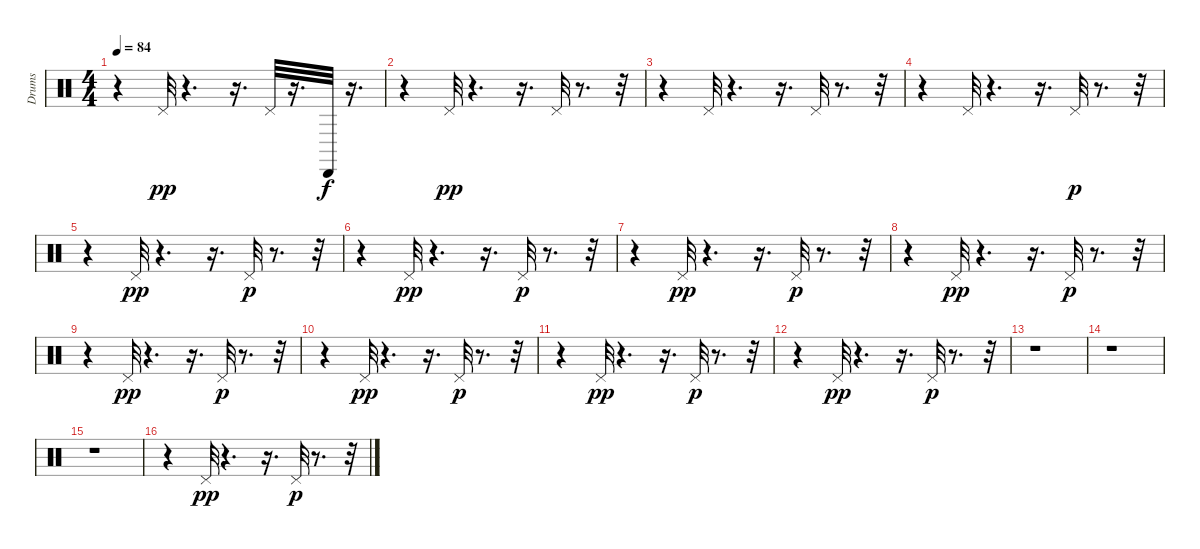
\track ("Drums" "Drums") {instrument percussion}
\staff {score}
\articulation defaults
\ts (4 4)
\tempo 84
\clef neutral
\ks c
r.4{dy pp} "Pedal Hi-Hat (hit)".32 r.4{d} r.16{d} "Pedal Hi-Hat (hit)".32 r.16{d} "Cabasa (hit)".32{dy f} r.16{d} |
r.4 "Pedal Hi-Hat (hit)".32{dy pp} r.4{d} r.16{d} "Pedal Hi-Hat (hit)".32 r.8{d} r.32 |
r.4 "Pedal Hi-Hat (hit)".32 r.4{d} r.16{d} "Pedal Hi-Hat (hit)".32 r.8{d} r.32 |
r.4 "Pedal Hi-Hat (hit)".32 r.4{d} r.16{d} "Pedal Hi-Hat (hit)".32{dy p} r.8{d} r.32 |
r.4 "Pedal Hi-Hat (hit)".32{dy pp} r.4{d} r.16{d} "Pedal Hi-Hat (hit)".32{dy p} r.8{d} r.32 |
r.4 "Pedal Hi-Hat (hit)".32{dy pp} r.4{d} r.16{d} "Pedal Hi-Hat (hit)".32{dy p} r.8{d} r.32 |
r.4 "Pedal Hi-Hat (hit)".32{dy pp} r.4{d} r.16{d} "Pedal Hi-Hat (hit)".32{dy p} r.8{d} r.32 |
r.4 "Pedal Hi-Hat (hit)".32{dy pp} r.4{d} r.16{d} "Pedal Hi-Hat (hit)".32{dy p} r.8{d} r.32 |
r.4 "Pedal Hi-Hat (hit)".32{dy pp} r.4{d} r.16{d} "Pedal Hi-Hat (hit)".32{dy p} r.8{d} r.32 |
r.4 "Pedal Hi-Hat (hit)".32{dy pp} r.4{d} r.16{d} "Pedal Hi-Hat (hit)".32{dy p} r.8{d} r.32 |
r.4 "Pedal Hi-Hat (hit)".32{dy pp} r.4{d} r.16{d} "Pedal Hi-Hat (hit)".32{dy p} r.8{d} r.32 |
r.4 "Pedal Hi-Hat (hit)".32{dy pp} r.4{d} r.16{d} "Pedal Hi-Hat (hit)".32{dy p} r.8{d} r.32 |
r.1 |
r.1 |
r.1 |
r.4 "Pedal Hi-Hat (hit)".32{dy pp} r.4{d} r.16{d} "Pedal Hi-Hat (hit)".32{dy p} r.8{d} r.32
